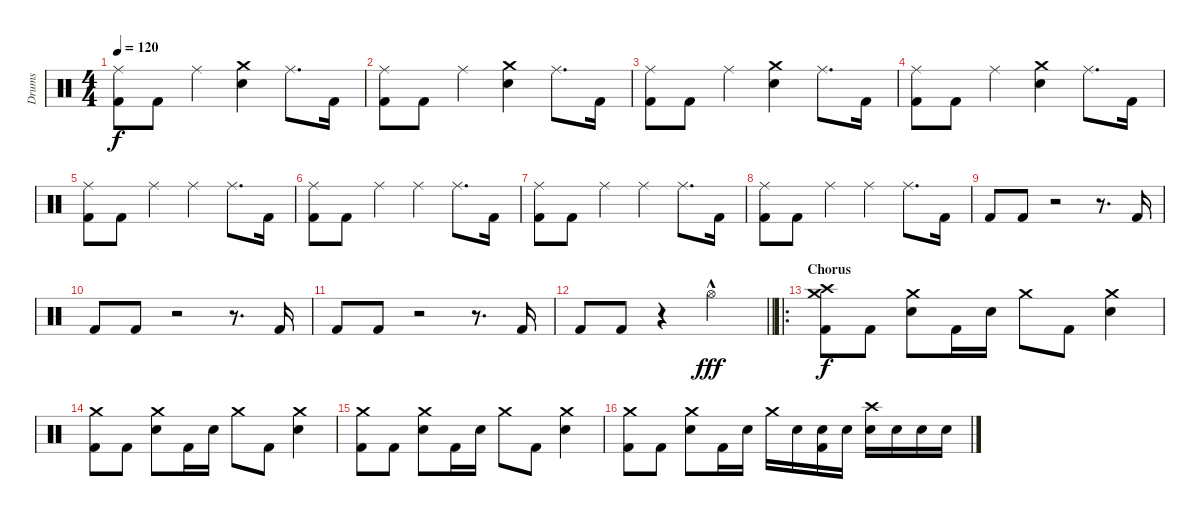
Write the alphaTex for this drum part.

\track ("Drums" "Drums") {instrument percussion}
\staff {score}
\articulation defaults
\ts (4 4)
\tempo 120
\clef neutral
\ks c
("Ride (middle)" "Kick (hit) 2").8{dy f} "Kick (hit) 2".8 "Ride (middle)".4 ("Crash medium (hit)" "Electric Snare (hit)").4 "Ride (middle)".8{d} "Kick (hit) 2".16 |
("Ride (middle)" "Kick (hit) 2").8 "Kick (hit) 2".8 "Ride (middle)".4 ("Crash medium (hit)" "Electric Snare (hit)").4 "Ride (middle)".8{d} "Kick (hit) 2".16 |
("Ride (middle)" "Kick (hit) 2").8 "Kick (hit) 2".8 "Ride (middle)".4 ("Crash medium (hit)" "Electric Snare (hit)").4 "Ride (middle)".8{d} "Kick (hit) 2".16 |
("Ride (middle)" "Kick (hit) 2").8 "Kick (hit) 2".8 "Ride (middle)".4 ("Crash medium (hit)" "Electric Snare (hit)").4 "Ride (middle)".8{d} "Kick (hit) 2".16 |
("Ride (middle)" "Kick (hit) 2").8 "Kick (hit) 2".8 "Ride (middle)".4 "Ride (middle)".4 "Ride (middle)".8{d} "Kick (hit) 2".16 |
("Ride (middle)" "Kick (hit) 2").8 "Kick (hit) 2".8 "Ride (middle)".4 "Ride (middle)".4 "Ride (middle)".8{d} "Kick (hit) 2".16 |
("Ride (middle)" "Kick (hit) 2").8 "Kick (hit) 2".8 "Ride (middle)".4 "Ride (middle)".4 "Ride (middle)".8{d} "Kick (hit) 2".16 |
("Ride (middle)" "Kick (hit) 2").8 "Kick (hit) 2".8 "Ride (middle)".4 "Ride (middle)".4 "Ride (middle)".8{d} "Kick (hit) 2".16 |
"Kick (hit) 2".8 "Kick (hit) 2".8 r.2 r.8{d} "Kick (hit) 2".16 |
"Kick (hit) 2".8 "Kick (hit) 2".8 r.2 r.8{d} "Kick (hit) 2".16 |
"Kick (hit) 2".8 "Kick (hit) 2".8 r.2 r.8{d} "Kick (hit) 2".16 |
\barLineRight lightlight "Kick (hit) 2".8 "Kick (hit) 2".8
r.4 "Hi-Hat (open)"{hac}.2{dy fff volume 14} |
\ro
\section ("" "Chorus")
("Crash medium (hit)" "Crash high (hit)" "Kick (hit) 2").8{dy f} "Kick (hit) 2".8 ("Crash medium (hit)" "Electric Snare (hit)").8 "Kick (hit) 2".16 "Electric Snare (hit)".16 "Crash medium (hit)".8 "Kick (hit) 2".8 ("Crash medium (hit)" "Electric Snare (hit)").4 |
("Crash medium (hit)" "Kick (hit) 2").8 "Kick (hit) 2".8 ("Crash medium (hit)" "Electric Snare (hit)").8 "Kick (hit) 2".16 "Electric Snare (hit)".16 "Crash medium (hit)".8 "Kick (hit) 2".8 ("Crash medium (hit)" "Electric Snare (hit)").4 |
("Crash medium (hit)" "Kick (hit) 2").8 "Kick (hit) 2".8 ("Crash medium (hit)" "Electric Snare (hit)").8 "Kick (hit) 2".16 "Electric Snare (hit)".16 "Crash medium (hit)".8 "Kick (hit) 2".8 ("Crash medium (hit)" "Electric Snare (hit)").4 |
("Crash medium (hit)" "Kick (hit) 2").8 "Kick (hit) 2".8 ("Crash medium (hit)" "Electric Snare (hit)").8 "Kick (hit) 2".16 "Electric Snare (hit)".16 "Crash medium (hit)".16 "Electric Snare (hit)".16 ("Electric Snare (hit)" "Kick (hit) 2").16 "Electric Snare (hit)".16 ("Crash high (hit)" "Electric Snare (hit)").16 "Electric Snare (hit)".16 "Electric Snare (hit)".16 "Electric Snare (hit)".16
